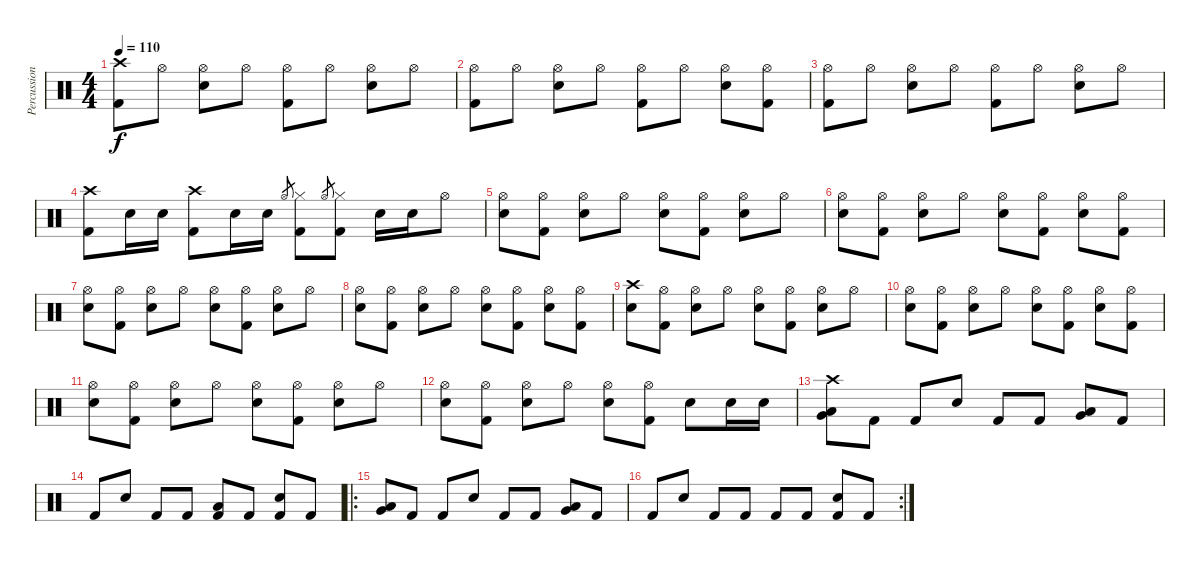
\track ("Percussion" "Percussion") {instrument percussion}
\staff {score}
\articulation defaults
\ts (4 4)
\tempo 110
\clef neutral
\ks c
("Crash high (hit)" "Kick (hit) 2").8{dy f} "Hi-Hat (open)".8 ("Hi-Hat (open)" "Snare (hit) 2").8 "Hi-Hat (open)".8 ("Hi-Hat (open)" "Kick (hit) 2").8 "Hi-Hat (open)".8 ("Hi-Hat (open)" "Snare (hit) 2").8 "Hi-Hat (open)".8 |
("Hi-Hat (open)" "Kick (hit) 2").8 "Hi-Hat (open)".8 ("Hi-Hat (open)" "Snare (hit) 2").8 "Hi-Hat (open)".8 ("Hi-Hat (open)" "Kick (hit) 2").8 "Hi-Hat (open)".8 ("Hi-Hat (open)" "Snare (hit) 2").8 ("Hi-Hat (open)" "Kick (hit) 2").8 |
("Hi-Hat (open)" "Kick (hit) 2").8 "Hi-Hat (open)".8 ("Hi-Hat (open)" "Snare (hit) 2").8 "Hi-Hat (open)".8 ("Hi-Hat (open)" "Kick (hit) 2").8 "Hi-Hat (open)".8 ("Hi-Hat (open)" "Snare (hit) 2").8 "Hi-Hat (open)".8 |
("Crash high (hit)" "Kick (hit) 2").8 "Snare (hit) 2".16 "Snare (hit) 2".16 ("Crash high (hit)" "Kick (hit) 2").8 "Snare (hit) 2".16 "Snare (hit) 2".16 "Hi-Hat (open)".8{gr} ("Hi-Hat (closed)" "Kick (hit) 2").8 "Hi-Hat (open)".8{gr} ("Hi-Hat (closed)" "Kick (hit) 2").8 "Snare (hit) 2".16 "Snare (hit) 2".16 "Hi-Hat (open)".8 |
("Hi-Hat (open)" "Snare (hit) 2").8 ("Hi-Hat (open)" "Kick (hit) 2").8 ("Hi-Hat (open)" "Snare (hit) 2").8 "Hi-Hat (open)".8 ("Hi-Hat (open)" "Snare (hit) 2").8 ("Hi-Hat (open)" "Kick (hit) 2").8 ("Hi-Hat (open)" "Snare (hit) 2").8 "Hi-Hat (open)".8 |
("Hi-Hat (open)" "Snare (hit) 2").8 ("Hi-Hat (open)" "Kick (hit) 2").8 ("Hi-Hat (open)" "Snare (hit) 2").8 "Hi-Hat (open)".8 ("Hi-Hat (open)" "Snare (hit) 2").8 ("Hi-Hat (open)" "Kick (hit) 2").8 ("Hi-Hat (open)" "Snare (hit) 2").8 ("Hi-Hat (open)" "Kick (hit) 2").8 |
("Hi-Hat (open)" "Snare (hit) 2").8 ("Hi-Hat (open)" "Kick (hit) 2").8 ("Hi-Hat (open)" "Snare (hit) 2").8 "Hi-Hat (open)".8 ("Hi-Hat (open)" "Snare (hit) 2").8 ("Hi-Hat (open)" "Kick (hit) 2").8 ("Hi-Hat (open)" "Snare (hit) 2").8 "Hi-Hat (open)".8 |
("Hi-Hat (open)" "Snare (hit) 2").8 ("Hi-Hat (open)" "Kick (hit) 2").8 ("Hi-Hat (open)" "Snare (hit) 2").8 "Hi-Hat (open)".8 ("Hi-Hat (open)" "Snare (hit) 2").8 ("Hi-Hat (open)" "Kick (hit) 2").8 ("Hi-Hat (open)" "Snare (hit) 2").8 ("Hi-Hat (open)" "Kick (hit) 2").8 |
("Crash high (hit)" "Snare (hit) 2").8 ("Hi-Hat (open)" "Kick (hit) 2").8 ("Hi-Hat (open)" "Snare (hit) 2").8 "Hi-Hat (open)".8 ("Hi-Hat (open)" "Snare (hit) 2").8 ("Hi-Hat (open)" "Kick (hit) 2").8 ("Hi-Hat (open)" "Snare (hit) 2").8 "Hi-Hat (open)".8 |
("Hi-Hat (open)" "Snare (hit) 2").8 ("Hi-Hat (open)" "Kick (hit) 2").8 ("Hi-Hat (open)" "Snare (hit) 2").8 "Hi-Hat (open)".8 ("Hi-Hat (open)" "Snare (hit) 2").8 ("Hi-Hat (open)" "Kick (hit) 2").8 ("Hi-Hat (open)" "Snare (hit) 2").8 ("Hi-Hat (open)" "Kick (hit) 2").8 |
("Hi-Hat (open)" "Snare (hit) 2").8 ("Hi-Hat (open)" "Kick (hit) 2").8 ("Hi-Hat (open)" "Snare (hit) 2").8 "Hi-Hat (open)".8 ("Hi-Hat (open)" "Snare (hit) 2").8 ("Hi-Hat (open)" "Kick (hit) 2").8 ("Hi-Hat (open)" "Snare (hit) 2").8 "Hi-Hat (open)".8 |
("Hi-Hat (open)" "Snare (hit) 2").8 ("Hi-Hat (open)" "Kick (hit) 2").8 ("Hi-Hat (open)" "Snare (hit) 2").8 "Hi-Hat (open)".8 ("Hi-Hat (open)" "Snare (hit) 2").8 ("Hi-Hat (open)" "Kick (hit) 2").8 "Snare (hit) 2".8 "Snare (hit) 2".16 "Snare (hit) 2".16 |
("Crash high (hit)" "Low Tom (hit)" "Very Low Tom (hit)").8 "Kick (hit) 2".8 "Kick (hit) 2".8 "Snare (hit) 2".8 "Kick (hit) 2".8 "Kick (hit) 2".8 ("Low Tom (hit)" "Very Low Tom (hit)").8 "Kick (hit) 2".8 |
"Kick (hit) 2".8 "Snare (hit) 2".8 "Kick (hit) 2".8 "Kick (hit) 2".8 ("Low Floor Tom (hit)" "Kick (hit) 2").8 "Kick (hit) 2".8 ("Snare (hit) 2" "Kick (hit) 2").8 "Kick (hit) 2".8 |
\ro
("Low Tom (hit)" "Very Low Tom (hit)").8 "Kick (hit) 2".8 "Kick (hit) 2".8 "Snare (hit) 2".8 "Kick (hit) 2".8 "Kick (hit) 2".8 ("Low Tom (hit)" "Very Low Tom (hit)").8 "Kick (hit) 2".8 |
\rc 2 "Kick (hit) 2".8 "Snare (hit) 2".8 "Kick (hit) 2".8 "Kick (hit) 2".8 "Kick (hit) 2".8 "Kick (hit) 2".8
("Snare (hit) 2" "Kick (hit) 2").8 "Kick (hit) 2".8
